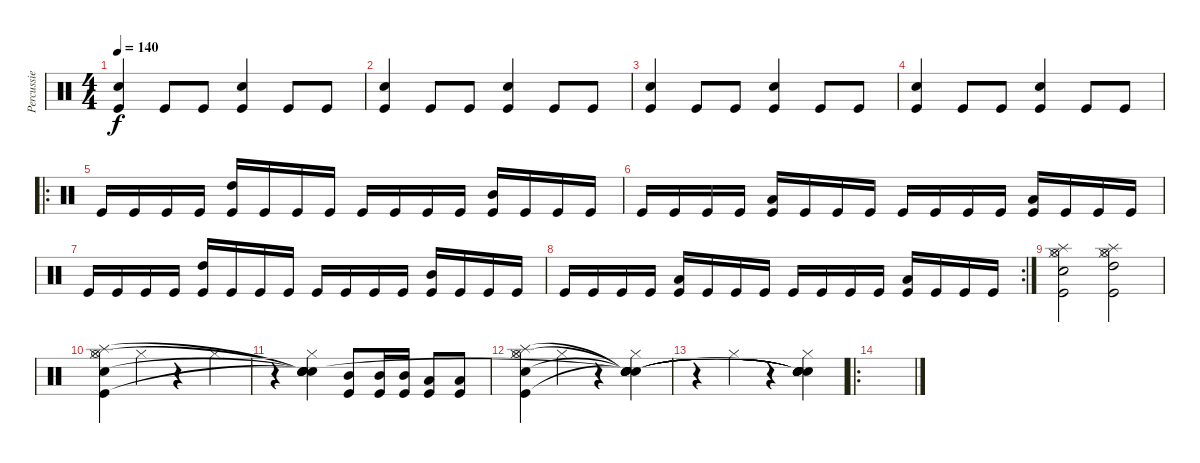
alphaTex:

\track ("Percussie" "Percussie") {instrument percussion}
\staff {score}
\articulation defaults
\ts (4 4)
\tempo 140
\clef neutral
\ks c
("Snare (hit) 2" "Kick (hit)").4{dy f} "Kick (hit)".8 "Kick (hit)".8 ("Snare (hit) 2" "Kick (hit)").4 "Kick (hit)".8 "Kick (hit)".8 |
("Snare (hit) 2" "Kick (hit)").4 "Kick (hit)".8 "Kick (hit)".8 ("Snare (hit) 2" "Kick (hit)").4 "Kick (hit)".8 "Kick (hit)".8 |
("Snare (hit) 2" "Kick (hit)").4 "Kick (hit)".8 "Kick (hit)".8 ("Snare (hit) 2" "Kick (hit)").4 "Kick (hit)".8 "Kick (hit)".8 |
("Snare (hit) 2" "Kick (hit)").4 "Kick (hit)".8 "Kick (hit)".8 ("Snare (hit) 2" "Kick (hit)").4 "Kick (hit)".8 "Kick (hit)".8 |
\ro "Kick (hit)".16 "Kick (hit)".16 "Kick (hit)".16 "Kick (hit)".16
("High Tom (hit)" "Kick (hit)").16 "Kick (hit)".16 "Kick (hit)".16 "Kick (hit)".16 "Kick (hit)".16 "Kick (hit)".16 "Kick (hit)".16 "Kick (hit)".16 ("Mid Tom (hit)" "Kick (hit)").16 "Kick (hit)".16 "Kick (hit)".16 "Kick (hit)".16 |
"Kick (hit)".16 "Kick (hit)".16 "Kick (hit)".16 "Kick (hit)".16 ("Low Tom (hit)" "Kick (hit)").16 "Kick (hit)".16 "Kick (hit)".16 "Kick (hit)".16 "Kick (hit)".16 "Kick (hit)".16 "Kick (hit)".16 "Kick (hit)".16 ("Low Tom (hit)" "Kick (hit)").16 "Kick (hit)".16 "Kick (hit)".16 "Kick (hit)".16 |
"Kick (hit)".16 "Kick (hit)".16 "Kick (hit)".16 "Kick (hit)".16 ("High Tom (hit)" "Kick (hit)").16 "Kick (hit)".16 "Kick (hit)".16 "Kick (hit)".16 "Kick (hit)".16 "Kick (hit)".16 "Kick (hit)".16 "Kick (hit)".16 ("Mid Tom (hit)" "Kick (hit)").16 "Kick (hit)".16 "Kick (hit)".16 "Kick (hit)".16 |
\rc 2 "Kick (hit)".16 "Kick (hit)".16 "Kick (hit)".16 "Kick (hit)".16
("Low Tom (hit)" "Kick (hit)").16 "Kick (hit)".16 "Kick (hit)".16 "Kick (hit)".16 "Kick (hit)".16 "Kick (hit)".16 "Kick (hit)".16 "Kick (hit)".16 ("Low Tom (hit)" "Kick (hit)").16 "Kick (hit)".16 "Kick (hit)".16 "Kick (hit)".16 |
("Hi-Hat (closed)" "Splash (hit)" "Hi-Hat (open)" "Snare (hit) 2" "Kick (hit)").2 ("Hi-Hat (closed)" "Splash (hit)" "Hi-Hat (open)" "High Tom (hit)" "Kick (hit)").2 |
("Hi-Hat (closed)" "Splash (hit)" "Hi-Hat (open)" "Snare (hit) 2" "Kick (hit)").4 "Hi-Hat (closed)".4 r.4 "Hi-Hat (closed)".4 |
r.4 ("Hi-Hat (closed)" "Snare (hit)"{t} "Snare (hit)"{t} "Snare (hit)"{t} "Snare (hit)"{t} "Snare (hit)").4 ("Mid Tom (hit)" "Kick (hit)").8 ("Mid Tom (hit)" "Kick (hit)").16 ("Mid Tom (hit)" "Kick (hit)").16 ("Low Tom (hit)" "Kick (hit)").8 ("Low Tom (hit)" "Kick (hit)").8 |
("Hi-Hat (closed)" "Splash (hit)" "Hi-Hat (open)" "Snare (hit) 2" "Kick (hit)").4 "Hi-Hat (closed)".4 r.4 ("Hi-Hat (closed)" "Snare (hit)"{t} "Snare (hit)"{t} "Snare (hit)"{t} "Snare (hit)"{t} "Snare (hit)"{t}).4 |
r.4 "Hi-Hat (closed)".4 r.4 ("Hi-Hat (closed)" "Snare (hit)"{t} "Snare (hit)"{t} "Snare (hit)"{t} "Snare (hit)"{t} "Snare (hit)"{t}).4 |
\ro
